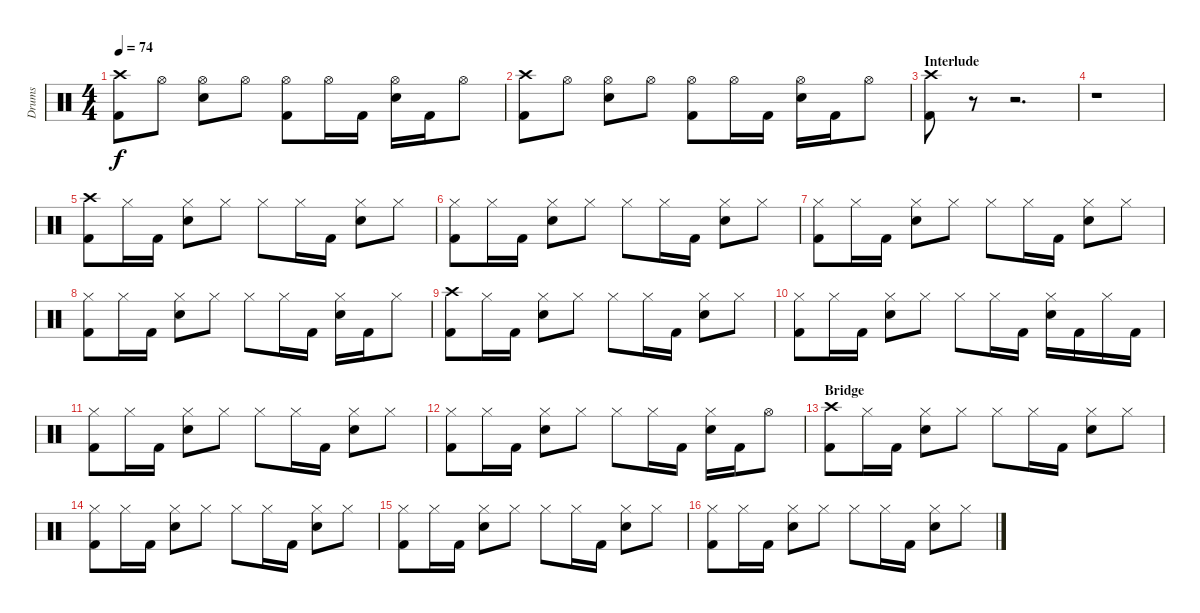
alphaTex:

\track ("Drums" "Drums") {instrument percussion}
\staff {score}
\articulation defaults
\ts (4 4)
\tempo 74
\clef neutral
\ks c
("Crash high (hit)" "Kick (hit) 2").8{dy f} "Hi-Hat (open)".8 ("Hi-Hat (open)" "Electric Snare (hit)").8 "Hi-Hat (open)".8 ("Hi-Hat (open)" "Kick (hit) 2").8 "Hi-Hat (open)".16 "Kick (hit) 2".16 ("Hi-Hat (open)" "Electric Snare (hit)").16 "Kick (hit) 2".16 "Hi-Hat (open)".8 |
("Crash high (hit)" "Kick (hit) 2").8 "Hi-Hat (open)".8 ("Hi-Hat (open)" "Electric Snare (hit)").8 "Hi-Hat (open)".8 ("Hi-Hat (open)" "Kick (hit) 2").8 "Hi-Hat (open)".16 "Kick (hit) 2".16 ("Hi-Hat (open)" "Electric Snare (hit)").16 "Kick (hit) 2".16 "Hi-Hat (open)".8 |
\section ("" "Interlude")
("Crash high (hit)" "Kick (hit) 2").8 r.8 r.2{d} |
r.1{volume 0} |
("Crash high (hit)" "Kick (hit) 2").8{volume 12} "Hi-Hat (closed)".16 "Kick (hit) 2".16 ("Hi-Hat (closed)" "Electric Snare (hit)").8 "Hi-Hat (closed)".8 "Hi-Hat (closed)".8 "Hi-Hat (closed)".16 "Kick (hit) 2".16 ("Hi-Hat (closed)" "Electric Snare (hit)").8 "Hi-Hat (closed)".8 |
("Hi-Hat (closed)" "Kick (hit) 2").8 "Hi-Hat (closed)".16 "Kick (hit) 2".16 ("Hi-Hat (closed)" "Electric Snare (hit)").8 "Hi-Hat (closed)".8 "Hi-Hat (closed)".8 "Hi-Hat (closed)".16 "Kick (hit) 2".16 ("Hi-Hat (closed)" "Electric Snare (hit)").8 "Hi-Hat (closed)".8 |
("Hi-Hat (closed)" "Kick (hit) 2").8 "Hi-Hat (closed)".16 "Kick (hit) 2".16 ("Hi-Hat (closed)" "Electric Snare (hit)").8 "Hi-Hat (closed)".8 "Hi-Hat (closed)".8 "Hi-Hat (closed)".16 "Kick (hit) 2".16 ("Hi-Hat (closed)" "Electric Snare (hit)").8 "Hi-Hat (closed)".8 |
("Hi-Hat (closed)" "Kick (hit) 2").8 "Hi-Hat (closed)".16 "Kick (hit) 2".16 ("Hi-Hat (closed)" "Electric Snare (hit)").8 "Hi-Hat (closed)".8 "Hi-Hat (closed)".8 "Hi-Hat (closed)".16 "Kick (hit) 2".16 ("Hi-Hat (closed)" "Electric Snare (hit)").16 "Kick (hit) 2".16 "Hi-Hat (closed)".8 |
("Crash high (hit)" "Kick (hit) 2").8 "Hi-Hat (closed)".16 "Kick (hit) 2".16 ("Hi-Hat (closed)" "Electric Snare (hit)").8 "Hi-Hat (closed)".8 "Hi-Hat (closed)".8 "Hi-Hat (closed)".16 "Kick (hit) 2".16 ("Hi-Hat (closed)" "Electric Snare (hit)").8 "Hi-Hat (closed)".8 |
("Hi-Hat (closed)" "Kick (hit) 2").8 "Hi-Hat (closed)".16 "Kick (hit) 2".16 ("Hi-Hat (closed)" "Electric Snare (hit)").8 "Hi-Hat (closed)".8 "Hi-Hat (closed)".8 "Hi-Hat (closed)".16 "Kick (hit) 2".16 ("Hi-Hat (closed)" "Electric Snare (hit)").16 "Kick (hit) 2".16 "Hi-Hat (closed)".16 "Kick (hit) 2".16 |
("Hi-Hat (closed)" "Kick (hit) 2").8 "Hi-Hat (closed)".16 "Kick (hit) 2".16 ("Hi-Hat (closed)" "Electric Snare (hit)").8 "Hi-Hat (closed)".8 "Hi-Hat (closed)".8 "Hi-Hat (closed)".16 "Kick (hit) 2".16 ("Hi-Hat (closed)" "Electric Snare (hit)").8 "Hi-Hat (closed)".8 |
("Hi-Hat (closed)" "Kick (hit) 2").8 "Hi-Hat (closed)".16 "Kick (hit) 2".16 ("Hi-Hat (closed)" "Electric Snare (hit)").8 "Hi-Hat (closed)".8 "Hi-Hat (closed)".8 "Hi-Hat (closed)".16 "Kick (hit) 2".16 ("Hi-Hat (closed)" "Electric Snare (hit)").16 "Kick (hit) 2".16 "Hi-Hat (open)".8 |
\section ("" "Bridge")
("Crash high (hit)" "Kick (hit) 2").8 "Hi-Hat (closed)".16 "Kick (hit) 2".16 ("Hi-Hat (closed)" "Electric Snare (hit)").8 "Hi-Hat (closed)".8 "Hi-Hat (closed)".8 "Hi-Hat (closed)".16 "Kick (hit) 2".16 ("Hi-Hat (closed)" "Electric Snare (hit)").8 "Hi-Hat (closed)".8 |
("Hi-Hat (closed)" "Kick (hit) 2").8 "Hi-Hat (closed)".16 "Kick (hit) 2".16 ("Hi-Hat (closed)" "Electric Snare (hit)").8 "Hi-Hat (closed)".8 "Hi-Hat (closed)".8 "Hi-Hat (closed)".16 "Kick (hit) 2".16 ("Hi-Hat (closed)" "Electric Snare (hit)").8 "Hi-Hat (closed)".8 |
("Hi-Hat (closed)" "Kick (hit) 2").8 "Hi-Hat (closed)".16 "Kick (hit) 2".16 ("Hi-Hat (closed)" "Electric Snare (hit)").8 "Hi-Hat (closed)".8 "Hi-Hat (closed)".8 "Hi-Hat (closed)".16 "Kick (hit) 2".16 ("Hi-Hat (closed)" "Electric Snare (hit)").8 "Hi-Hat (closed)".8 |
("Hi-Hat (closed)" "Kick (hit) 2").8 "Hi-Hat (closed)".16 "Kick (hit) 2".16 ("Hi-Hat (closed)" "Electric Snare (hit)").8 "Hi-Hat (closed)".8 "Hi-Hat (closed)".8 "Hi-Hat (closed)".16 "Kick (hit) 2".16 ("Hi-Hat (closed)" "Electric Snare (hit)").8 "Hi-Hat (closed)".8
